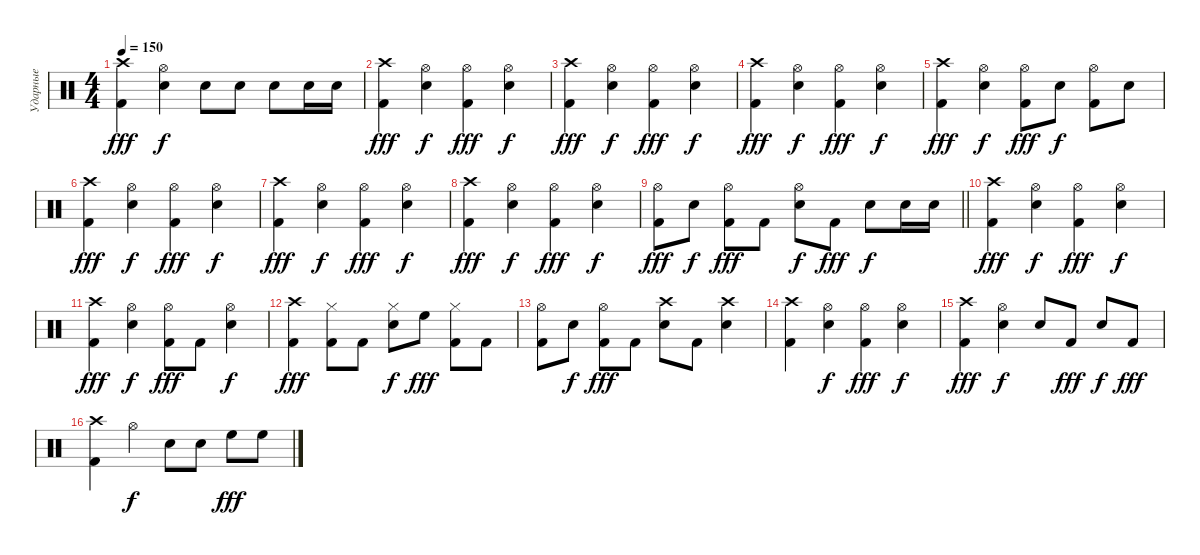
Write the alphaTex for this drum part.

\track ("Ударные" "Ударные") {instrument percussion}
\staff {score}
\articulation defaults
\ts (4 4)
\tempo 150
\clef neutral
\ks c
("Kick (hit) 2" "Crash high (hit)").4{dy fff} ("Snare (hit) 2" "Hi-Hat (open)").4{dy f} "Snare (hit) 2".8 "Snare (hit) 2".8 "Snare (hit) 2".8 "Snare (hit) 2".16 "Snare (hit) 2".16 |
("Kick (hit) 2" "Crash high (hit)").4{dy fff} ("Snare (hit) 2" "Hi-Hat (open)").4{dy f} ("Kick (hit) 2" "Hi-Hat (open)").4{dy fff} ("Snare (hit) 2" "Hi-Hat (open)").4{dy f} |
("Kick (hit) 2" "Crash high (hit)").4{dy fff} ("Snare (hit) 2" "Hi-Hat (open)").4{dy f} ("Kick (hit) 2" "Hi-Hat (open)").4{dy fff} ("Snare (hit) 2" "Hi-Hat (open)").4{dy f} |
("Kick (hit) 2" "Crash high (hit)").4{dy fff} ("Snare (hit) 2" "Hi-Hat (open)").4{dy f} ("Kick (hit) 2" "Hi-Hat (open)").4{dy fff} ("Snare (hit) 2" "Hi-Hat (open)").4{dy f} |
("Kick (hit) 2" "Crash high (hit)").4{dy fff} ("Snare (hit) 2" "Hi-Hat (open)").4{dy f} ("Kick (hit) 2" "Hi-Hat (open)").8{dy fff} "Snare (hit) 2".8{dy f} ("Kick (hit) 2" "Hi-Hat (open)").8 "Snare (hit) 2".8 |
("Kick (hit) 2" "Crash high (hit)").4{dy fff} ("Snare (hit) 2" "Hi-Hat (open)").4{dy f} ("Kick (hit) 2" "Hi-Hat (open)").4{dy fff} ("Snare (hit) 2" "Hi-Hat (open)").4{dy f} |
("Kick (hit) 2" "Crash high (hit)").4{dy fff} ("Snare (hit) 2" "Hi-Hat (open)").4{dy f} ("Kick (hit) 2" "Hi-Hat (open)").4{dy fff} ("Snare (hit) 2" "Hi-Hat (open)").4{dy f} |
("Kick (hit) 2" "Crash high (hit)").4{dy fff} ("Snare (hit) 2" "Hi-Hat (open)").4{dy f} ("Kick (hit) 2" "Hi-Hat (open)").4{dy fff} ("Snare (hit) 2" "Hi-Hat (open)").4{dy f} |
\barLineRight lightlight
("Kick (hit) 2" "Hi-Hat (open)").8{dy fff} "Snare (hit) 2".8{dy f} ("Kick (hit) 2" "Hi-Hat (open)").8{dy fff} "Kick (hit) 2".8 ("Snare (hit) 2" "Hi-Hat (open)").8{dy f} "Kick (hit) 2".8{dy fff} "Snare (hit) 2".8{dy f} "Snare (hit) 2".16 "Snare (hit) 2".16 |
("Kick (hit) 2" "Crash high (hit)").4{dy fff} ("Snare (hit) 2" "Hi-Hat (open)").4{dy f} ("Kick (hit) 2" "Hi-Hat (open)").4{dy fff} ("Snare (hit) 2" "Hi-Hat (open)").4{dy f} |
("Kick (hit) 2" "Crash high (hit)").4{dy fff} ("Snare (hit) 2" "Hi-Hat (open)").4{dy f} ("Kick (hit) 2" "Hi-Hat (open)").8{dy fff} "Kick (hit) 2".8 ("Snare (hit) 2" "Hi-Hat (open)").4{dy f} |
("Kick (hit) 2" "Crash high (hit)").4{dy fff} ("Kick (hit) 2" "Hi-Hat (closed)").8 "Kick (hit) 2".8 ("Snare (hit) 2" "Hi-Hat (closed)").8{dy f} "High Floor Tom (hit)".8{dy fff} ("Kick (hit) 2" "Hi-Hat (closed)").8 "Kick (hit) 2".8 |
("Kick (hit) 2" "Hi-Hat (open)").8 "Snare (hit) 2".8{dy f} ("Kick (hit) 2" "Hi-Hat (open)").8{dy fff} "Kick (hit) 2".8 ("Snare (hit) 2" "Crash high (hit)").8 "Kick (hit) 2".8 ("Snare (hit) 2" "Crash high (hit)").4 |
("Kick (hit) 2" "Crash high (hit)").4 ("Snare (hit) 2" "Hi-Hat (open)").4{dy f} ("Kick (hit) 2" "Hi-Hat (open)").4{dy fff} ("Snare (hit) 2" "Hi-Hat (open)").4{dy f} |
("Kick (hit) 2" "Crash high (hit)").4{dy fff} ("Snare (hit) 2" "Hi-Hat (open)").4{dy f} "Snare (hit) 2".8 "Kick (hit) 2".8{dy fff} "Snare (hit) 2".8{dy f} "Kick (hit) 2".8{dy fff} |
("Kick (hit) 2" "Crash high (hit)").4 "Hi-Hat (open)".4{dy f} "Snare (hit) 2".8 "Snare (hit) 2".8 "High Floor Tom (hit)".8{dy fff} "High Floor Tom (hit)".8
